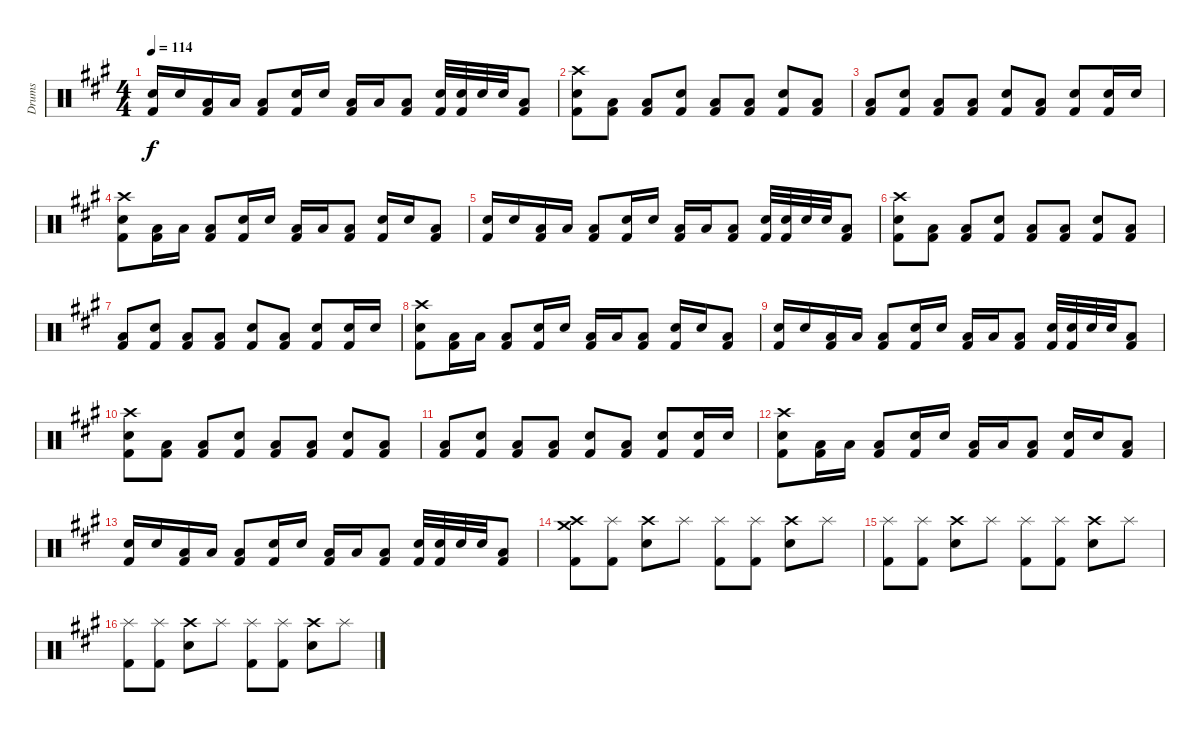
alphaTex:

\track ("Drums" "Drums") {instrument percussion}
\staff {score}
\articulation defaults
\ts (4 4)
\tempo 114
\clef neutral
\ks a
("Snare (hit) 2" "Kick (hit) 2").16{dy f} "Snare (hit) 2".16 ("Low Floor Tom (hit)" "Kick (hit) 2").16 "Low Floor Tom (hit)".16 ("Low Floor Tom (hit)" "Kick (hit) 2").8 ("Snare (hit) 2" "Kick (hit) 2").16 "Snare (hit) 2".16 ("Low Floor Tom (hit)" "Kick (hit) 2").16 "Low Floor Tom (hit)".16 ("Low Floor Tom (hit)" "Kick (hit) 2").8 ("Snare (hit) 2" "Kick (hit) 2").32 ("Snare (hit) 2" "Kick (hit) 2").32 "Snare (hit) 2".32 "Snare (hit) 2".32 ("Low Floor Tom (hit)" "Kick (hit) 2").8 |
("Crash high (hit)" "Snare (hit) 2" "Kick (hit) 2").8 ("Low Floor Tom (hit)" "Kick (hit) 2").8 ("Low Floor Tom (hit)" "Kick (hit) 2").8 ("Snare (hit) 2" "Kick (hit) 2").8 ("Low Floor Tom (hit)" "Kick (hit) 2").8 ("Low Floor Tom (hit)" "Kick (hit) 2").8 ("Snare (hit) 2" "Kick (hit) 2").8 ("Low Floor Tom (hit)" "Kick (hit) 2").8 |
("Low Floor Tom (hit)" "Kick (hit) 2").8 ("Snare (hit) 2" "Kick (hit) 2").8 ("Low Floor Tom (hit)" "Kick (hit) 2").8 ("Low Floor Tom (hit)" "Kick (hit) 2").8 ("Snare (hit) 2" "Kick (hit) 2").8 ("Low Floor Tom (hit)" "Kick (hit) 2").8 ("Snare (hit) 2" "Kick (hit) 2").8 ("Snare (hit) 2" "Kick (hit) 2").16 "Snare (hit) 2".16 |
("Crash high (hit)" "Snare (hit) 2" "Kick (hit) 2").8 ("Low Floor Tom (hit)" "Kick (hit) 2").16 "Low Floor Tom (hit)".16 ("Low Floor Tom (hit)" "Kick (hit) 2").8 ("Snare (hit) 2" "Kick (hit) 2").16 "Snare (hit) 2".16 ("Low Floor Tom (hit)" "Kick (hit) 2").16 "Low Floor Tom (hit)".16 ("Low Floor Tom (hit)" "Kick (hit) 2").8 ("Snare (hit) 2" "Kick (hit) 2").16 "Snare (hit) 2".16 ("Low Floor Tom (hit)" "Kick (hit) 2").8 |
("Snare (hit) 2" "Kick (hit) 2").16 "Snare (hit) 2".16 ("Low Floor Tom (hit)" "Kick (hit) 2").16 "Low Floor Tom (hit)".16 ("Low Floor Tom (hit)" "Kick (hit) 2").8 ("Snare (hit) 2" "Kick (hit) 2").16 "Snare (hit) 2".16 ("Low Floor Tom (hit)" "Kick (hit) 2").16 "Low Floor Tom (hit)".16 ("Low Floor Tom (hit)" "Kick (hit) 2").8 ("Snare (hit) 2" "Kick (hit) 2").32 ("Snare (hit) 2" "Kick (hit) 2").32 "Snare (hit) 2".32 "Snare (hit) 2".32 ("Low Floor Tom (hit)" "Kick (hit) 2").8 |
("Crash high (hit)" "Snare (hit) 2" "Kick (hit) 2").8 ("Low Floor Tom (hit)" "Kick (hit) 2").8 ("Low Floor Tom (hit)" "Kick (hit) 2").8 ("Snare (hit) 2" "Kick (hit) 2").8 ("Low Floor Tom (hit)" "Kick (hit) 2").8 ("Low Floor Tom (hit)" "Kick (hit) 2").8 ("Snare (hit) 2" "Kick (hit) 2").8 ("Low Floor Tom (hit)" "Kick (hit) 2").8 |
("Low Floor Tom (hit)" "Kick (hit) 2").8 ("Snare (hit) 2" "Kick (hit) 2").8 ("Low Floor Tom (hit)" "Kick (hit) 2").8 ("Low Floor Tom (hit)" "Kick (hit) 2").8 ("Snare (hit) 2" "Kick (hit) 2").8 ("Low Floor Tom (hit)" "Kick (hit) 2").8 ("Snare (hit) 2" "Kick (hit) 2").8 ("Snare (hit) 2" "Kick (hit) 2").16 "Snare (hit) 2".16 |
("Crash high (hit)" "Snare (hit) 2" "Kick (hit) 2").8 ("Low Floor Tom (hit)" "Kick (hit) 2").16 "Low Floor Tom (hit)".16 ("Low Floor Tom (hit)" "Kick (hit) 2").8 ("Snare (hit) 2" "Kick (hit) 2").16 "Snare (hit) 2".16 ("Low Floor Tom (hit)" "Kick (hit) 2").16 "Low Floor Tom (hit)".16 ("Low Floor Tom (hit)" "Kick (hit) 2").8 ("Snare (hit) 2" "Kick (hit) 2").16 "Snare (hit) 2".16 ("Low Floor Tom (hit)" "Kick (hit) 2").8 |
("Snare (hit) 2" "Kick (hit) 2").16 "Snare (hit) 2".16 ("Low Floor Tom (hit)" "Kick (hit) 2").16 "Low Floor Tom (hit)".16 ("Low Floor Tom (hit)" "Kick (hit) 2").8 ("Snare (hit) 2" "Kick (hit) 2").16 "Snare (hit) 2".16 ("Low Floor Tom (hit)" "Kick (hit) 2").16 "Low Floor Tom (hit)".16 ("Low Floor Tom (hit)" "Kick (hit) 2").8 ("Snare (hit) 2" "Kick (hit) 2").32 ("Snare (hit) 2" "Kick (hit) 2").32 "Snare (hit) 2".32 "Snare (hit) 2".32 ("Low Floor Tom (hit)" "Kick (hit) 2").8 |
("Crash high (hit)" "Snare (hit) 2" "Kick (hit) 2").8 ("Low Floor Tom (hit)" "Kick (hit) 2").8 ("Low Floor Tom (hit)" "Kick (hit) 2").8 ("Snare (hit) 2" "Kick (hit) 2").8 ("Low Floor Tom (hit)" "Kick (hit) 2").8 ("Low Floor Tom (hit)" "Kick (hit) 2").8 ("Snare (hit) 2" "Kick (hit) 2").8 ("Low Floor Tom (hit)" "Kick (hit) 2").8 |
("Low Floor Tom (hit)" "Kick (hit) 2").8 ("Snare (hit) 2" "Kick (hit) 2").8 ("Low Floor Tom (hit)" "Kick (hit) 2").8 ("Low Floor Tom (hit)" "Kick (hit) 2").8 ("Snare (hit) 2" "Kick (hit) 2").8 ("Low Floor Tom (hit)" "Kick (hit) 2").8 ("Snare (hit) 2" "Kick (hit) 2").8 ("Snare (hit) 2" "Kick (hit) 2").16 "Snare (hit) 2".16 |
("Crash high (hit)" "Snare (hit) 2" "Kick (hit) 2").8 ("Low Floor Tom (hit)" "Kick (hit) 2").16 "Low Floor Tom (hit)".16 ("Low Floor Tom (hit)" "Kick (hit) 2").8 ("Snare (hit) 2" "Kick (hit) 2").16 "Snare (hit) 2".16 ("Low Floor Tom (hit)" "Kick (hit) 2").16 "Low Floor Tom (hit)".16 ("Low Floor Tom (hit)" "Kick (hit) 2").8 ("Snare (hit) 2" "Kick (hit) 2").16 "Snare (hit) 2".16 ("Low Floor Tom (hit)" "Kick (hit) 2").8 |
("Snare (hit) 2" "Kick (hit) 2").16 "Snare (hit) 2".16 ("Low Floor Tom (hit)" "Kick (hit) 2").16 "Low Floor Tom (hit)".16 ("Low Floor Tom (hit)" "Kick (hit) 2").8 ("Snare (hit) 2" "Kick (hit) 2").16 "Snare (hit) 2".16 ("Low Floor Tom (hit)" "Kick (hit) 2").16 "Low Floor Tom (hit)".16 ("Low Floor Tom (hit)" "Kick (hit) 2").8 ("Snare (hit) 2" "Kick (hit) 2").32 ("Snare (hit) 2" "Kick (hit) 2").32 "Snare (hit) 2".32 "Snare (hit) 2".32 ("Low Floor Tom (hit)" "Kick (hit) 2").8 |
("Crash high (hit)" "Crash medium (hit)" "Kick (hit) 2").8 ("Splash (hit)" "Kick (hit) 2").8 ("Crash high (hit)" "Snare (hit) 2").8 "Splash (hit)".8 ("Splash (hit)" "Kick (hit) 2").8 ("Splash (hit)" "Kick (hit) 2").8 ("Crash high (hit)" "Snare (hit) 2").8 "Splash (hit)".8 |
("Splash (hit)" "Kick (hit) 2").8 ("Splash (hit)" "Kick (hit) 2").8 ("Crash high (hit)" "Snare (hit) 2").8 "Splash (hit)".8 ("Splash (hit)" "Kick (hit) 2").8 ("Splash (hit)" "Kick (hit) 2").8 ("Crash high (hit)" "Snare (hit) 2").8 "Splash (hit)".8 |
("Splash (hit)" "Kick (hit) 2").8 ("Splash (hit)" "Kick (hit) 2").8 ("Crash high (hit)" "Snare (hit) 2").8 "Splash (hit)".8 ("Splash (hit)" "Kick (hit) 2").8 ("Splash (hit)" "Kick (hit) 2").8 ("Crash high (hit)" "Snare (hit) 2").8 "Splash (hit)".8
